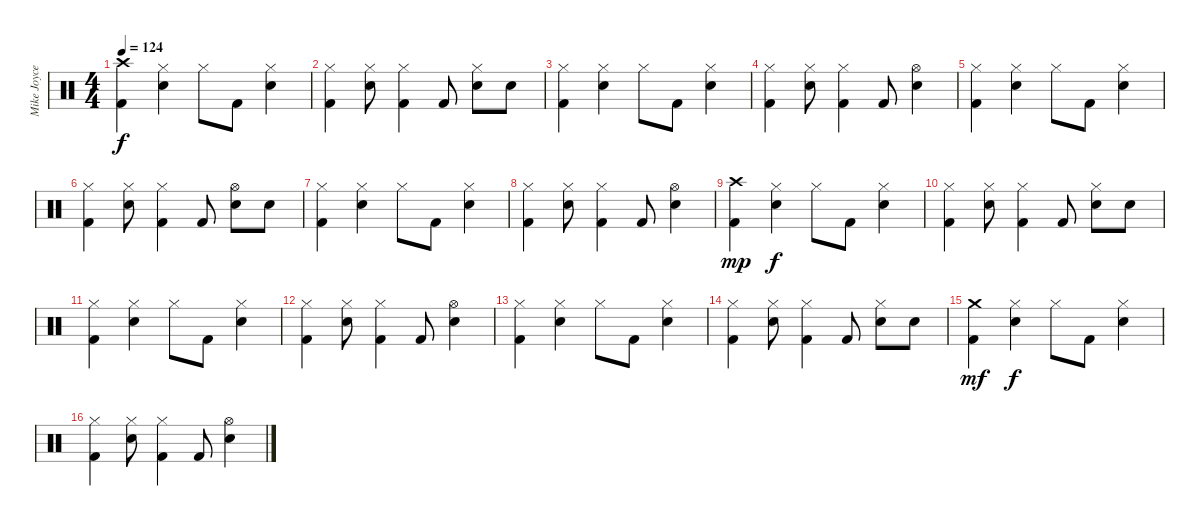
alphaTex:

\track ("Mike Joyce" "Mike Joyce") {instrument percussion}
\staff {score}
\articulation defaults
\ts (4 4)
\tempo 124
\clef neutral
\ks c
("Crash high (hit)" "Kick (hit) 2").4{dy f} ("Hi-Hat (closed)" "Electric Snare (hit)").4 "Hi-Hat (closed)".8 "Kick (hit) 2".8 ("Hi-Hat (closed)" "Electric Snare (hit)").4 |
("Hi-Hat (closed)" "Kick (hit) 2").4 ("Hi-Hat (closed)" "Electric Snare (hit)").8 ("Hi-Hat (closed)" "Kick (hit) 2").4 "Kick (hit) 2".8 ("Hi-Hat (closed)" "Electric Snare (hit)").8 "Electric Snare (hit)".8 |
("Hi-Hat (closed)" "Kick (hit) 2").4 ("Hi-Hat (closed)" "Electric Snare (hit)").4 "Hi-Hat (closed)".8 "Kick (hit) 2".8 ("Hi-Hat (closed)" "Electric Snare (hit)").4 |
("Hi-Hat (closed)" "Kick (hit) 2").4 ("Hi-Hat (closed)" "Electric Snare (hit)").8 ("Hi-Hat (closed)" "Kick (hit) 2").4 "Kick (hit) 2".8 ("Hi-Hat (open)" "Electric Snare (hit)").4 |
("Hi-Hat (closed)" "Kick (hit) 2").4 ("Hi-Hat (closed)" "Electric Snare (hit)").4 "Hi-Hat (closed)".8 "Kick (hit) 2".8 ("Hi-Hat (closed)" "Electric Snare (hit)").4 |
("Hi-Hat (closed)" "Kick (hit) 2").4 ("Hi-Hat (closed)" "Electric Snare (hit)").8 ("Hi-Hat (closed)" "Kick (hit) 2").4 "Kick (hit) 2".8 ("Hi-Hat (open)" "Electric Snare (hit)").8 "Electric Snare (hit)".8 |
("Hi-Hat (closed)" "Kick (hit) 2").4 ("Hi-Hat (closed)" "Electric Snare (hit)").4 "Hi-Hat (closed)".8 "Kick (hit) 2".8 ("Hi-Hat (closed)" "Electric Snare (hit)").4 |
("Hi-Hat (closed)" "Kick (hit) 2").4 ("Hi-Hat (closed)" "Electric Snare (hit)").8 ("Hi-Hat (closed)" "Kick (hit) 2").4 "Kick (hit) 2".8 ("Hi-Hat (open)" "Electric Snare (hit)").4 |
("Crash high (hit)" "Kick (hit) 2").4{dy mp} ("Hi-Hat (closed)" "Electric Snare (hit)").4{dy f} "Hi-Hat (closed)".8 "Kick (hit) 2".8 ("Hi-Hat (closed)" "Electric Snare (hit)").4 |
("Hi-Hat (closed)" "Kick (hit) 2").4 ("Hi-Hat (closed)" "Electric Snare (hit)").8 ("Hi-Hat (closed)" "Kick (hit) 2").4 "Kick (hit) 2".8 ("Hi-Hat (closed)" "Electric Snare (hit)").8 "Electric Snare (hit)".8 |
("Hi-Hat (closed)" "Kick (hit) 2").4 ("Hi-Hat (closed)" "Electric Snare (hit)").4 "Hi-Hat (closed)".8 "Kick (hit) 2".8 ("Hi-Hat (closed)" "Electric Snare (hit)").4 |
("Hi-Hat (closed)" "Kick (hit) 2").4 ("Hi-Hat (closed)" "Electric Snare (hit)").8 ("Hi-Hat (closed)" "Kick (hit) 2").4 "Kick (hit) 2".8 ("Hi-Hat (open)" "Electric Snare (hit)").4 |
("Hi-Hat (closed)" "Kick (hit) 2").4 ("Hi-Hat (closed)" "Electric Snare (hit)").4 "Hi-Hat (closed)".8 "Kick (hit) 2".8 ("Hi-Hat (closed)" "Electric Snare (hit)").4 |
("Hi-Hat (closed)" "Kick (hit) 2").4 ("Hi-Hat (closed)" "Electric Snare (hit)").8 ("Hi-Hat (closed)" "Kick (hit) 2").4 "Kick (hit) 2".8 ("Hi-Hat (closed)" "Electric Snare (hit)").8 "Electric Snare (hit)".8 |
("Crash medium (hit)" "Kick (hit) 2").4{dy mf} ("Hi-Hat (closed)" "Electric Snare (hit)").4{dy f} "Hi-Hat (closed)".8 "Kick (hit) 2".8 ("Hi-Hat (closed)" "Electric Snare (hit)").4 |
("Hi-Hat (closed)" "Kick (hit) 2").4 ("Hi-Hat (closed)" "Electric Snare (hit)").8 ("Hi-Hat (closed)" "Kick (hit) 2").4 "Kick (hit) 2".8 ("Hi-Hat (open)" "Electric Snare (hit)").4
